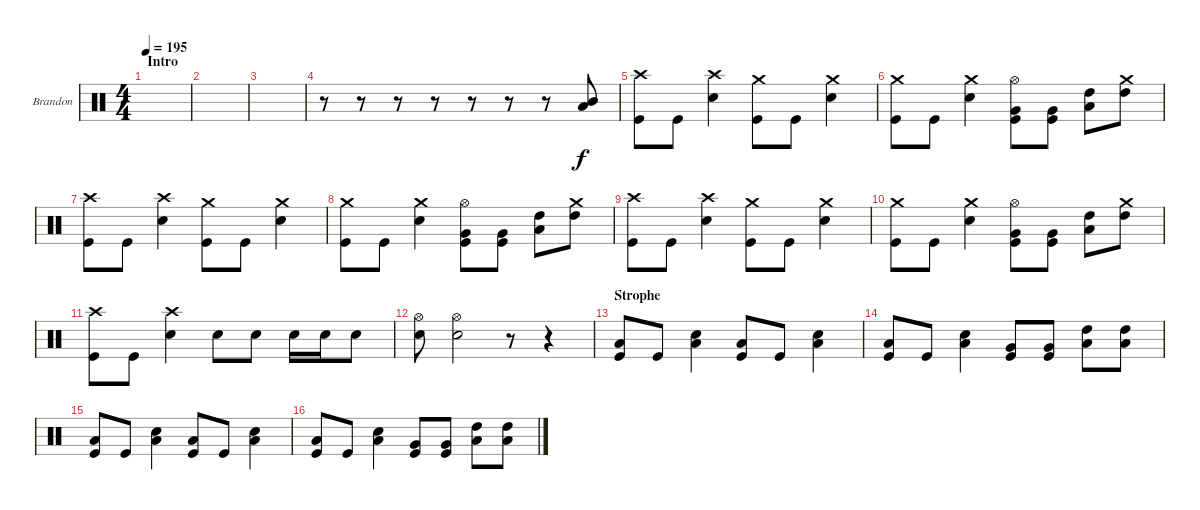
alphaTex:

\defaultSystemsLayout 4
\bracketExtendMode groupsimilarinstruments
\firstSystemTrackNameOrientation horizontal
\otherSystemsTrackNameOrientation horizontal
\track ("Drumkit" "Brandon") {instrument percussion}
\staff {score}
\articulation defaults
\ts (4 4)
\section ("" "Intro")
\tempo 195
\clef neutral
\scale
0.472222
\ks c
|
\scale
0.263889 |
\scale
0.263889 |
\scale
0.333333 r.8 r.8 r.8 r.8 r.8 r.8 r.8 ("Low Tom (hit)" "Mid Tom (hit)").8 |
\scale
0.333333 ("Kick (hit)" "Crash high (hit)").8 "Kick (hit)".8 ("Snare (hit) 2" "Crash high (hit)").4 ("Kick (hit)" "Crash medium (hit)").8 "Kick (hit)".8 ("Snare (hit) 2" "Crash medium (hit)").4 |
\scale
0.333333 ("Kick (hit)" "Crash medium (hit)").8 "Kick (hit)".8 ("Snare (hit) 2" "Crash medium (hit)").4 ("Very Low Tom (hit)" "Kick (hit)" "Hi-Hat (open)").8 ("Very Low Tom (hit)" "Kick (hit)").8 ("Low Tom (hit)" "High Tom (hit)").8 ("High Tom (hit)" "Crash medium (hit)").8 |
\scale
0.333333 ("Kick (hit)" "Crash high (hit)").8 "Kick (hit)".8 ("Snare (hit) 2" "Crash high (hit)").4 ("Kick (hit)" "Crash medium (hit)").8 "Kick (hit)".8 ("Snare (hit) 2" "Crash medium (hit)").4 |
\scale
0.333333 ("Kick (hit)" "Crash medium (hit)").8 "Kick (hit)".8 ("Snare (hit) 2" "Crash medium (hit)").4 ("Very Low Tom (hit)" "Kick (hit)" "Hi-Hat (open)").8 ("Very Low Tom (hit)" "Kick (hit)").8 ("Low Tom (hit)" "High Tom (hit)").8 ("High Tom (hit)" "Crash medium (hit)").8 |
\scale
0.333333 ("Kick (hit)" "Crash high (hit)").8 "Kick (hit)".8 ("Snare (hit) 2" "Crash high (hit)").4 ("Kick (hit)" "Crash medium (hit)").8 "Kick (hit)".8 ("Snare (hit) 2" "Crash medium (hit)").4 |
\scale
0.333333 ("Kick (hit)" "Crash medium (hit)").8 "Kick (hit)".8 ("Snare (hit) 2" "Crash medium (hit)").4 ("Very Low Tom (hit)" "Kick (hit)" "Hi-Hat (open)").8 ("Very Low Tom (hit)" "Kick (hit)").8 ("Low Tom (hit)" "High Tom (hit)").8 ("High Tom (hit)" "Crash medium (hit)").8 |
\scale
0.333333 ("Kick (hit)" "Crash high (hit)").8 "Kick (hit)".8 ("Snare (hit) 2" "Crash high (hit)").4 "Snare (hit) 2".8 "Snare (hit) 2".8 "Snare (hit) 2".16 "Snare (hit) 2".16 "Snare (hit) 2".8 |
\scale
0.333333 ("Hi-Hat (open)" "Snare (hit) 2").8 ("Hi-Hat (open)" "Snare (hit) 2").2 r.8 r.4 |
\section ("" "Strophe")
\scale
0.333333 ("Kick (hit)" "Low Tom (hit)").8 "Kick (hit)".8 ("Snare (hit) 2" "Low Tom (hit)").4 ("Kick (hit)" "Low Tom (hit)").8 "Kick (hit)".8 ("Snare (hit) 2" "Low Tom (hit)").4 |
\scale
0.333333 ("Kick (hit)" "Low Tom (hit)").8 "Kick (hit)".8 ("Snare (hit) 2" "Low Tom (hit)").4 ("Very Low Tom (hit)" "Kick (hit)").8 ("Very Low Tom (hit)" "Kick (hit)").8 ("Low Tom (hit)" "High Tom (hit)").8 ("Low Tom (hit)" "High Tom (hit)").8 |
\scale
0.333333 ("Kick (hit)" "Low Tom (hit)").8 "Kick (hit)".8 ("Snare (hit) 2" "Low Tom (hit)").4 ("Kick (hit)" "Low Tom (hit)").8 "Kick (hit)".8 ("Snare (hit) 2" "Low Tom (hit)").4 |
\scale
0.333333 ("Kick (hit)" "Low Tom (hit)").8 "Kick (hit)".8 ("Snare (hit) 2" "Low Tom (hit)").4 ("Very Low Tom (hit)" "Kick (hit)").8 ("Very Low Tom (hit)" "Kick (hit)").8 ("Low Tom (hit)" "High Tom (hit)").8 ("Low Tom (hit)" "High Tom (hit)").8
